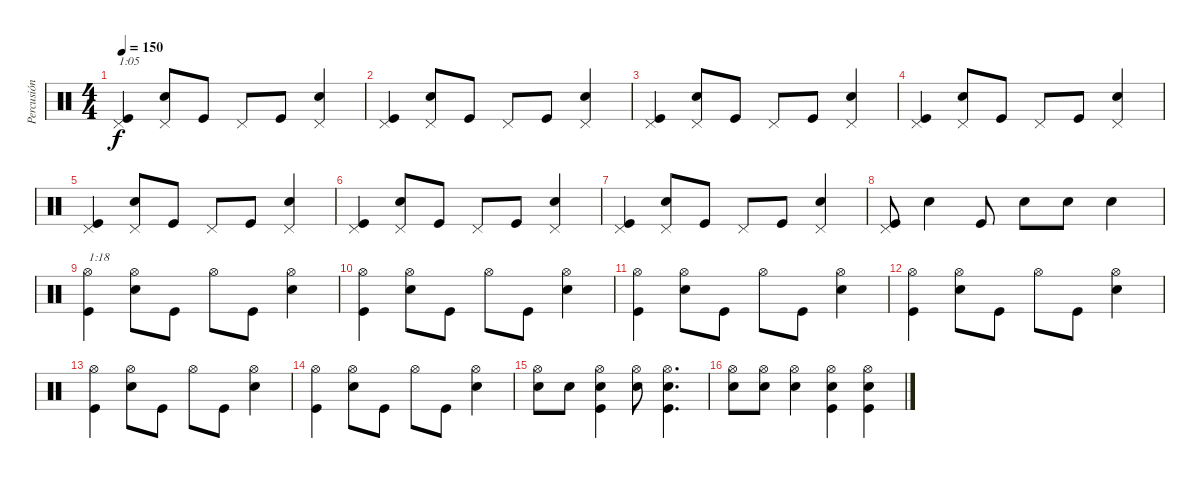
\track ("Percusión" "Percusión") {instrument percussion}
\staff {score}
\articulation defaults
\ts (4 4)
\tempo 150
\clef neutral
\ks c
("Kick (hit)" "Pedal Hi-Hat (hit)").4{txt "1:05" dy f} ("Snare (hit) 2" "Pedal Hi-Hat (hit)").8 "Kick (hit)".8 "Pedal Hi-Hat (hit)".8 "Kick (hit)".8 ("Snare (hit) 2" "Pedal Hi-Hat (hit)").4 |
("Kick (hit)" "Pedal Hi-Hat (hit)").4 ("Snare (hit) 2" "Pedal Hi-Hat (hit)").8 "Kick (hit)".8 "Pedal Hi-Hat (hit)".8 "Kick (hit)".8 ("Snare (hit) 2" "Pedal Hi-Hat (hit)").4 |
("Kick (hit)" "Pedal Hi-Hat (hit)").4 ("Snare (hit) 2" "Pedal Hi-Hat (hit)").8 "Kick (hit)".8 "Pedal Hi-Hat (hit)".8 "Kick (hit)".8 ("Snare (hit) 2" "Pedal Hi-Hat (hit)").4 |
("Kick (hit)" "Pedal Hi-Hat (hit)").4 ("Snare (hit) 2" "Pedal Hi-Hat (hit)").8 "Kick (hit)".8 "Pedal Hi-Hat (hit)".8 "Kick (hit)".8 ("Snare (hit) 2" "Pedal Hi-Hat (hit)").4 |
("Kick (hit)" "Pedal Hi-Hat (hit)").4 ("Snare (hit) 2" "Pedal Hi-Hat (hit)").8 "Kick (hit)".8 "Pedal Hi-Hat (hit)".8 "Kick (hit)".8 ("Snare (hit) 2" "Pedal Hi-Hat (hit)").4 |
("Kick (hit)" "Pedal Hi-Hat (hit)").4 ("Snare (hit) 2" "Pedal Hi-Hat (hit)").8 "Kick (hit)".8 "Pedal Hi-Hat (hit)".8 "Kick (hit)".8 ("Snare (hit) 2" "Pedal Hi-Hat (hit)").4 |
("Kick (hit)" "Pedal Hi-Hat (hit)").4 ("Snare (hit) 2" "Pedal Hi-Hat (hit)").8 "Kick (hit)".8 "Pedal Hi-Hat (hit)".8 "Kick (hit)".8 ("Snare (hit) 2" "Pedal Hi-Hat (hit)").4 |
("Kick (hit)" "Pedal Hi-Hat (hit)").8 "Snare (hit) 2".4 "Kick (hit)".8 "Snare (hit) 2".8 "Snare (hit) 2".8 "Snare (hit) 2".4 |
("Kick (hit)" "Hi-Hat (open)").4{txt "1:18"} ("Snare (hit) 2" "Hi-Hat (open)").8 "Kick (hit)".8 "Hi-Hat (open)".8 "Kick (hit)".8 ("Snare (hit) 2" "Hi-Hat (open)").4 |
("Kick (hit)" "Hi-Hat (open)").4 ("Snare (hit) 2" "Hi-Hat (open)").8 "Kick (hit)".8 "Hi-Hat (open)".8 "Kick (hit)".8 ("Snare (hit) 2" "Hi-Hat (open)").4 |
("Kick (hit)" "Hi-Hat (open)").4 ("Snare (hit) 2" "Hi-Hat (open)").8 "Kick (hit)".8 "Hi-Hat (open)".8 "Kick (hit)".8 ("Snare (hit) 2" "Hi-Hat (open)").4 |
("Kick (hit)" "Hi-Hat (open)").4 ("Snare (hit) 2" "Hi-Hat (open)").8 "Kick (hit)".8 "Hi-Hat (open)".8 "Kick (hit)".8 ("Snare (hit) 2" "Hi-Hat (open)").4 |
("Kick (hit)" "Hi-Hat (open)").4 ("Snare (hit) 2" "Hi-Hat (open)").8 "Kick (hit)".8 "Hi-Hat (open)".8 "Kick (hit)".8 ("Snare (hit) 2" "Hi-Hat (open)").4 |
("Kick (hit)" "Hi-Hat (open)").4 ("Snare (hit) 2" "Hi-Hat (open)").8 "Kick (hit)".8 "Hi-Hat (open)".8 "Kick (hit)".8 ("Snare (hit) 2" "Hi-Hat (open)").4 |
("Snare (hit) 2" "Hi-Hat (open)").8 "Snare (hit) 2".8 ("Kick (hit)" "Snare (hit) 2" "Hi-Hat (open)").4 ("Snare (hit) 2" "Hi-Hat (open)").8 ("Kick (hit)" "Snare (hit) 2" "Hi-Hat (open)").4{d} |
("Snare (hit) 2" "Hi-Hat (open)").8 ("Snare (hit) 2" "Hi-Hat (open)").8 ("Snare (hit) 2" "Hi-Hat (open)").4 ("Kick (hit)" "Snare (hit) 2" "Hi-Hat (open)").4 ("Kick (hit)" "Snare (hit) 2" "Hi-Hat (open)").4
